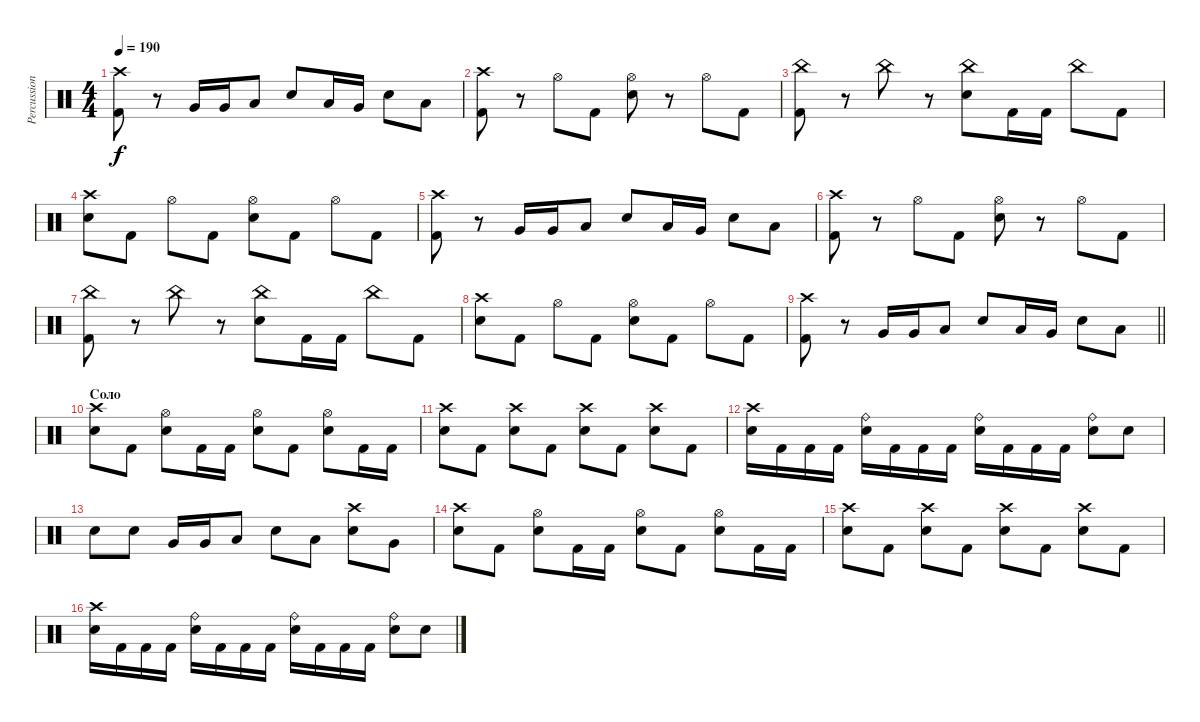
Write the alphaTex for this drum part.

\track ("Percussions" "Percussion") {instrument percussion}
\staff {score}
\articulation defaults
\ts (4 4)
\tempo 190
\clef neutral
\ks c
("Kick (hit) 2" "Crash high (hit)").8{dy f} r.8 "Very Low Tom (hit)".16 "Very Low Tom (hit)".16 "Low Floor Tom (hit)".8 "Electric Snare (hit)".8 "Low Tom (hit)".16 "Very Low Tom (hit)".16 "Electric Snare (hit)".8 "Low Floor Tom (hit)".8 |
("Kick (hit) 2" "Crash high (hit)").8 r.8 "Hi-Hat (open)".8 "Kick (hit) 2".8 ("Electric Snare (hit)" "Hi-Hat (open)").8 r.8 "Hi-Hat (open)".8 "Kick (hit) 2".8 |
("Kick (hit) 2" "China (hit)").8 r.8 "China (hit)".8 r.8 ("Electric Snare (hit)" "China (hit)").8 "Kick (hit) 2".16 "Kick (hit) 2".16 "China (hit)".8 "Kick (hit) 2".8 |
("Electric Snare (hit)" "Crash high (hit)").8 "Kick (hit) 2".8 "Hi-Hat (open)".8 "Kick (hit) 2".8 ("Electric Snare (hit)" "Hi-Hat (open)").8 "Kick (hit) 2".8 "Hi-Hat (open)".8 "Kick (hit) 2".8 |
("Kick (hit) 2" "Crash high (hit)").8 r.8 "Very Low Tom (hit)".16 "Very Low Tom (hit)".16 "Low Floor Tom (hit)".8 "Electric Snare (hit)".8 "Low Tom (hit)".16 "Very Low Tom (hit)".16 "Electric Snare (hit)".8 "Low Floor Tom (hit)".8 |
("Kick (hit) 2" "Crash high (hit)").8 r.8 "Hi-Hat (open)".8 "Kick (hit) 2".8 ("Electric Snare (hit)" "Hi-Hat (open)").8 r.8 "Hi-Hat (open)".8 "Kick (hit) 2".8 |
("Kick (hit) 2" "China (hit)").8 r.8 "China (hit)".8 r.8 ("Electric Snare (hit)" "China (hit)").8 "Kick (hit) 2".16 "Kick (hit) 2".16 "China (hit)".8 "Kick (hit) 2".8 |
("Electric Snare (hit)" "Crash high (hit)").8 "Kick (hit) 2".8 "Hi-Hat (open)".8 "Kick (hit) 2".8 ("Electric Snare (hit)" "Hi-Hat (open)").8 "Kick (hit) 2".8 "Hi-Hat (open)".8 "Kick (hit) 2".8 |
\barLineRight lightlight
("Kick (hit) 2" "Crash high (hit)").8 r.8 "Very Low Tom (hit)".16 "Very Low Tom (hit)".16 "Low Floor Tom (hit)".8 "Electric Snare (hit)".8 "Low Tom (hit)".16 "Very Low Tom (hit)".16 "Electric Snare (hit)".8 "Low Floor Tom (hit)".8 |
\section ("" "Соло")
("Electric Snare (hit)" "Crash high (hit)").8 "Kick (hit) 2".8 ("Electric Snare (hit)" "Hi-Hat (open)").8 "Kick (hit) 2".16 "Kick (hit) 2".16 ("Electric Snare (hit)" "Hi-Hat (open)").8 "Kick (hit) 2".8 ("Electric Snare (hit)" "Hi-Hat (open)").8 "Kick (hit) 2".16 "Kick (hit) 2".16 |
("Electric Snare (hit)" "Crash high (hit)").8 "Kick (hit) 2".8 ("Electric Snare (hit)" "Crash high (hit)").8 "Kick (hit) 2".8 ("Electric Snare (hit)" "Crash high (hit)").8 "Kick (hit) 2".8 ("Electric Snare (hit)" "Crash high (hit)").8 "Kick (hit) 2".8 |
("Electric Snare (hit)" "Crash high (hit)").16 "Kick (hit) 2".16 "Kick (hit) 2".16 "Kick (hit) 2".16 ("Electric Snare (hit)" "Ride (bell)").16 "Kick (hit) 2".16 "Kick (hit) 2".16 "Kick (hit) 2".16 ("Electric Snare (hit)" "Ride (bell)").16 "Kick (hit) 2".16 "Kick (hit) 2".16 "Kick (hit) 2".16 ("Electric Snare (hit)" "Ride (bell)").8 "Electric Snare (hit)".8 |
"Electric Snare (hit)".8 "Electric Snare (hit)".8 "Very Low Tom (hit)".16 "Very Low Tom (hit)".16 "Low Floor Tom (hit)".8 "Electric Snare (hit)".8 "Low Tom (hit)".8 ("Electric Snare (hit)" "Crash high (hit)").8 "Very Low Tom (hit)".8 |
("Electric Snare (hit)" "Crash high (hit)").8 "Kick (hit) 2".8 ("Electric Snare (hit)" "Hi-Hat (open)").8 "Kick (hit) 2".16 "Kick (hit) 2".16 ("Electric Snare (hit)" "Hi-Hat (open)").8 "Kick (hit) 2".8 ("Electric Snare (hit)" "Hi-Hat (open)").8 "Kick (hit) 2".16 "Kick (hit) 2".16 |
("Electric Snare (hit)" "Crash high (hit)").8 "Kick (hit) 2".8 ("Electric Snare (hit)" "Crash high (hit)").8 "Kick (hit) 2".8 ("Electric Snare (hit)" "Crash high (hit)").8 "Kick (hit) 2".8 ("Electric Snare (hit)" "Crash high (hit)").8 "Kick (hit) 2".8 |
("Electric Snare (hit)" "Crash high (hit)").16 "Kick (hit) 2".16 "Kick (hit) 2".16 "Kick (hit) 2".16 ("Electric Snare (hit)" "Ride (bell)").16 "Kick (hit) 2".16 "Kick (hit) 2".16 "Kick (hit) 2".16 ("Electric Snare (hit)" "Ride (bell)").16 "Kick (hit) 2".16 "Kick (hit) 2".16 "Kick (hit) 2".16 ("Electric Snare (hit)" "Ride (bell)").8 "Electric Snare (hit)".8
